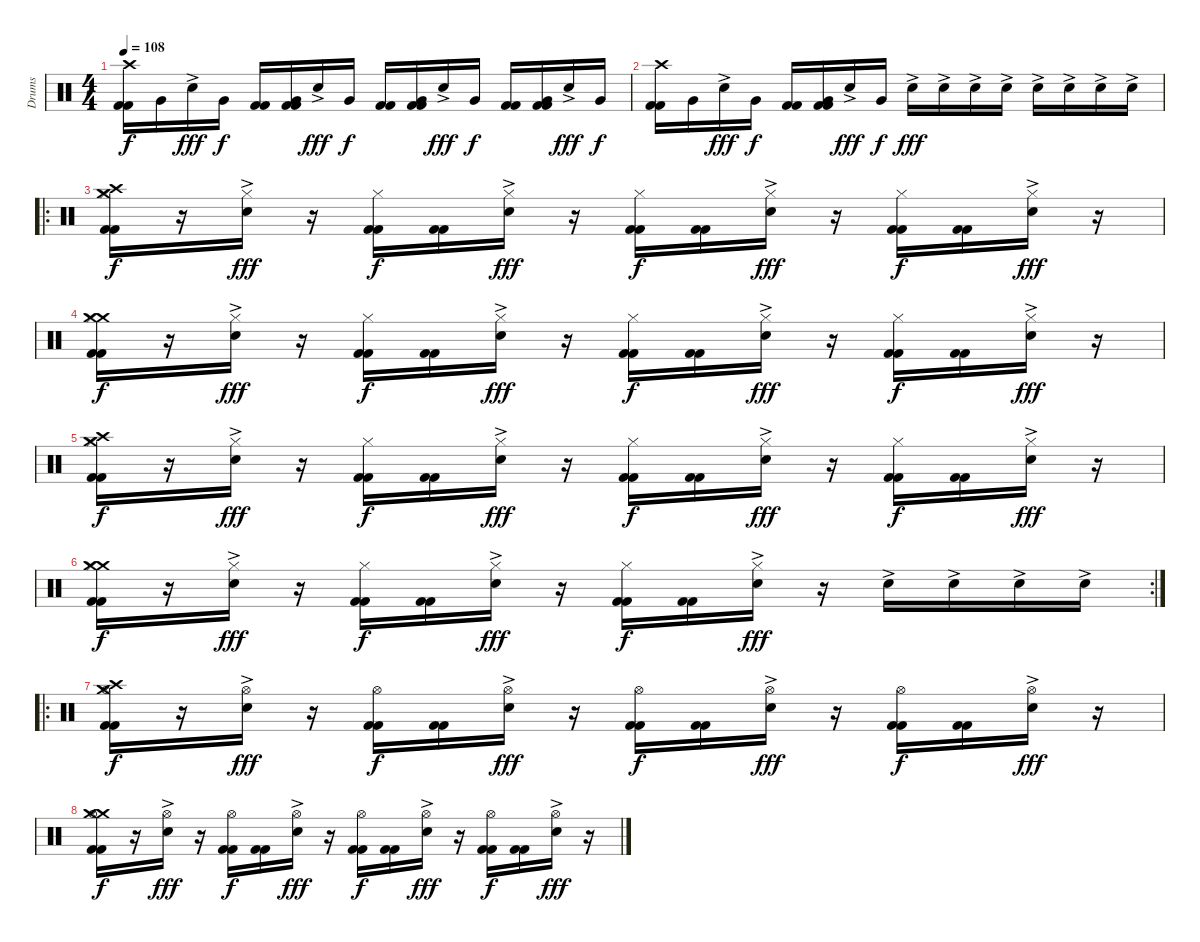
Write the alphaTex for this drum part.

\track ("Drums" "Drums") {instrument percussion}
\staff {score}
\articulation defaults
\ts (4 4)
\tempo 108
\clef neutral
\ks c
("Crash high (hit)" "Kick (hit) 2" "Kick (hit) 2").16{dy f} "Very Low Tom (hit)".16 "Electric Snare (hit)"{ac}.16{dy fff} "Very Low Tom (hit)".16{dy f} ("Kick (hit) 2" "Kick (hit) 2").16 ("Very Low Tom (hit)" "Kick (hit) 2" "Kick (hit) 2").16 "Electric Snare (hit)"{ac}.16{dy fff} "Very Low Tom (hit)".16{dy f} ("Kick (hit) 2" "Kick (hit) 2").16 ("Very Low Tom (hit)" "Kick (hit) 2" "Kick (hit) 2").16 "Electric Snare (hit)"{ac}.16{dy fff} "Very Low Tom (hit)".16{dy f} ("Kick (hit) 2" "Kick (hit) 2").16 ("Very Low Tom (hit)" "Kick (hit) 2" "Kick (hit) 2").16 "Electric Snare (hit)"{ac}.16{dy fff} "Very Low Tom (hit)".16{dy f} |
("Crash high (hit)" "Kick (hit) 2" "Kick (hit) 2").16 "Very Low Tom (hit)".16 "Electric Snare (hit)"{ac}.16{dy fff} "Very Low Tom (hit)".16{dy f} ("Kick (hit) 2" "Kick (hit) 2").16 ("Very Low Tom (hit)" "Kick (hit) 2" "Kick (hit) 2").16 "Electric Snare (hit)"{ac}.16{dy fff} "Very Low Tom (hit)".16{dy f} "Electric Snare (hit)"{ac}.16{dy fff} "Electric Snare (hit)"{ac}.16 "Electric Snare (hit)"{ac}.16 "Electric Snare (hit)"{ac}.16 "Electric Snare (hit)"{ac}.16 "Electric Snare (hit)"{ac}.16 "Electric Snare (hit)"{ac}.16 "Electric Snare (hit)"{ac}.16 |
\ro
("Crash high (hit)" "Crash medium (hit)" "Hi-Hat (closed)" "Kick (hit) 2" "Kick (hit) 2").16{dy f} r.16 ("Hi-Hat (closed)" "Electric Snare (hit)"{ac}).16{dy fff} r.16 ("Hi-Hat (closed)" "Kick (hit) 2" "Kick (hit) 2").16{dy f} ("Kick (hit) 2" "Kick (hit) 2").16 ("Hi-Hat (closed)" "Electric Snare (hit)"{ac}).16{dy fff} r.16 ("Hi-Hat (closed)" "Kick (hit) 2" "Kick (hit) 2").16{dy f} ("Kick (hit) 2" "Kick (hit) 2").16 ("Hi-Hat (closed)" "Electric Snare (hit)"{ac}).16{dy fff} r.16 ("Hi-Hat (closed)" "Kick (hit) 2" "Kick (hit) 2").16{dy f} ("Kick (hit) 2" "Kick (hit) 2").16 ("Hi-Hat (closed)" "Electric Snare (hit)"{ac}).16{dy fff} r.16 |
("Crash medium (hit)" "Crash medium (hit)" "Hi-Hat (closed)" "Kick (hit) 2" "Kick (hit) 2").16{dy f} r.16 ("Hi-Hat (closed)" "Electric Snare (hit)"{ac}).16{dy fff} r.16 ("Hi-Hat (closed)" "Kick (hit) 2" "Kick (hit) 2").16{dy f} ("Kick (hit) 2" "Kick (hit) 2").16 ("Hi-Hat (closed)" "Electric Snare (hit)"{ac}).16{dy fff} r.16 ("Hi-Hat (closed)" "Kick (hit) 2" "Kick (hit) 2").16{dy f} ("Kick (hit) 2" "Kick (hit) 2").16 ("Hi-Hat (closed)" "Electric Snare (hit)"{ac}).16{dy fff} r.16 ("Hi-Hat (closed)" "Kick (hit) 2" "Kick (hit) 2").16{dy f} ("Kick (hit) 2" "Kick (hit) 2").16 ("Hi-Hat (closed)" "Electric Snare (hit)"{ac}).16{dy fff} r.16 |
("Crash high (hit)" "Crash medium (hit)" "Hi-Hat (closed)" "Kick (hit) 2" "Kick (hit) 2").16{dy f} r.16 ("Hi-Hat (closed)" "Electric Snare (hit)"{ac}).16{dy fff} r.16 ("Hi-Hat (closed)" "Kick (hit) 2" "Kick (hit) 2").16{dy f} ("Kick (hit) 2" "Kick (hit) 2").16 ("Hi-Hat (closed)" "Electric Snare (hit)"{ac}).16{dy fff} r.16 ("Hi-Hat (closed)" "Kick (hit) 2" "Kick (hit) 2").16{dy f} ("Kick (hit) 2" "Kick (hit) 2").16 ("Hi-Hat (closed)" "Electric Snare (hit)"{ac}).16{dy fff} r.16 ("Hi-Hat (closed)" "Kick (hit) 2" "Kick (hit) 2").16{dy f} ("Kick (hit) 2" "Kick (hit) 2").16 ("Hi-Hat (closed)" "Electric Snare (hit)"{ac}).16{dy fff} r.16 |
\rc 2
("Crash medium (hit)" "Crash medium (hit)" "Hi-Hat (closed)" "Kick (hit) 2" "Kick (hit) 2").16{dy f} r.16 ("Hi-Hat (closed)" "Electric Snare (hit)"{ac}).16{dy fff} r.16 ("Hi-Hat (closed)" "Kick (hit) 2" "Kick (hit) 2").16{dy f} ("Kick (hit) 2" "Kick (hit) 2").16 ("Hi-Hat (closed)" "Electric Snare (hit)"{ac}).16{dy fff} r.16 ("Hi-Hat (closed)" "Kick (hit) 2" "Kick (hit) 2").16{dy f} ("Kick (hit) 2" "Kick (hit) 2").16 ("Hi-Hat (closed)" "Electric Snare (hit)"{ac}).16{dy fff} r.16 "Electric Snare (hit)"{ac}.16 "Electric Snare (hit)"{ac}.16 "Electric Snare (hit)"{ac}.16 "Electric Snare (hit)"{ac}.16 |
\ro
("Crash high (hit)" "Crash medium (hit)" "Hi-Hat (open)" "Kick (hit) 2" "Kick (hit) 2").16{dy f} r.16 ("Hi-Hat (open)" "Electric Snare (hit)"{ac}).16{dy fff} r.16 ("Hi-Hat (open)" "Kick (hit) 2" "Kick (hit) 2").16{dy f} ("Kick (hit) 2" "Kick (hit) 2").16 ("Hi-Hat (open)" "Electric Snare (hit)"{ac}).16{dy fff} r.16 ("Hi-Hat (open)" "Kick (hit) 2" "Kick (hit) 2").16{dy f} ("Kick (hit) 2" "Kick (hit) 2").16 ("Hi-Hat (open)" "Electric Snare (hit)"{ac}).16{dy fff} r.16 ("Hi-Hat (open)" "Kick (hit) 2" "Kick (hit) 2").16{dy f} ("Kick (hit) 2" "Kick (hit) 2").16 ("Hi-Hat (open)" "Electric Snare (hit)"{ac}).16{dy fff} r.16 |
("Crash medium (hit)" "Crash medium (hit)" "Hi-Hat (open)" "Kick (hit) 2" "Kick (hit) 2").16{dy f} r.16 ("Hi-Hat (open)" "Electric Snare (hit)"{ac}).16{dy fff} r.16 ("Hi-Hat (open)" "Kick (hit) 2" "Kick (hit) 2").16{dy f} ("Kick (hit) 2" "Kick (hit) 2").16 ("Hi-Hat (open)" "Electric Snare (hit)"{ac}).16{dy fff} r.16 ("Hi-Hat (open)" "Kick (hit) 2" "Kick (hit) 2").16{dy f} ("Kick (hit) 2" "Kick (hit) 2").16 ("Hi-Hat (open)" "Electric Snare (hit)"{ac}).16{dy fff} r.16 ("Hi-Hat (open)" "Kick (hit) 2" "Kick (hit) 2").16{dy f} ("Kick (hit) 2" "Kick (hit) 2").16 ("Hi-Hat (open)" "Electric Snare (hit)"{ac}).16{dy fff} r.16
